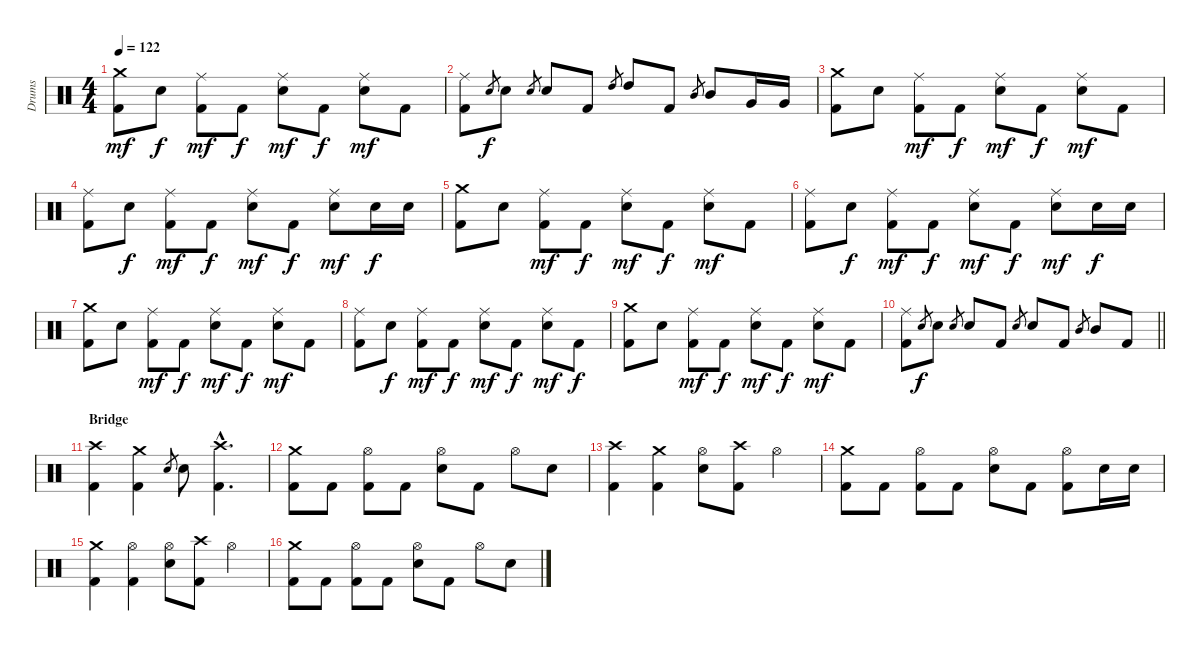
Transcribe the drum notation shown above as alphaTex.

\track ("Drums" "Drums") {instrument percussion}
\staff {score}
\articulation defaults
\ts (4 4)
\tempo 122
\clef neutral
\ks c
("Crash medium (hit)" "Kick (hit) 2").8{dy mf} "Snare (hit) 2".8{dy f} ("Kick (hit) 2" "Ride (middle)").8{dy mf} "Kick (hit) 2".8{dy f} ("Snare (hit) 2" "Ride (middle)").8{dy mf} "Kick (hit) 2".8{dy f} ("Snare (hit) 2" "Ride (middle)").8{dy mf} "Kick (hit) 2".8 |
("Kick (hit) 2" "Ride (middle)").8 "Snare (hit) 2".8{gr dy f} "Snare (hit) 2".8 "Snare (hit) 2".8{gr} "Snare (hit) 2".8 "Kick (hit) 2".8 "High Tom (hit)".8{gr} "High Tom (hit)".8 "Kick (hit) 2".8 "Mid Tom (hit)".8{gr} "Mid Tom (hit)".8 "Very Low Tom (hit)".16 "Very Low Tom (hit)".16 |
("Crash medium (hit)" "Kick (hit) 2").8 "Snare (hit) 2".8 ("Kick (hit) 2" "Ride (middle)").8{dy mf} "Kick (hit) 2".8{dy f} ("Snare (hit) 2" "Ride (middle)").8{dy mf} "Kick (hit) 2".8{dy f} ("Snare (hit) 2" "Ride (middle)").8{dy mf} "Kick (hit) 2".8 |
("Kick (hit) 2" "Ride (middle)").8 "Snare (hit) 2".8{dy f} ("Kick (hit) 2" "Ride (middle)").8{dy mf} "Kick (hit) 2".8{dy f} ("Snare (hit) 2" "Ride (middle)").8{dy mf} "Kick (hit) 2".8{dy f} ("Snare (hit) 2" "Ride (middle)").8{dy mf} "Snare (hit) 2".16{dy f} "Snare (hit) 2".16 |
("Crash medium (hit)" "Kick (hit) 2").8 "Snare (hit) 2".8 ("Kick (hit) 2" "Ride (middle)").8{dy mf} "Kick (hit) 2".8{dy f} ("Snare (hit) 2" "Ride (middle)").8{dy mf} "Kick (hit) 2".8{dy f} ("Snare (hit) 2" "Ride (middle)").8{dy mf} "Kick (hit) 2".8 |
("Kick (hit) 2" "Ride (middle)").8 "Snare (hit) 2".8{dy f} ("Kick (hit) 2" "Ride (middle)").8{dy mf} "Kick (hit) 2".8{dy f} ("Snare (hit) 2" "Ride (middle)").8{dy mf} "Kick (hit) 2".8{dy f} ("Snare (hit) 2" "Ride (middle)").8{dy mf} "Snare (hit) 2".16{dy f} "Snare (hit) 2".16 |
("Crash medium (hit)" "Kick (hit) 2").8 "Snare (hit) 2".8 ("Kick (hit) 2" "Ride (middle)").8{dy mf} "Kick (hit) 2".8{dy f} ("Snare (hit) 2" "Ride (middle)").8{dy mf} "Kick (hit) 2".8{dy f} ("Snare (hit) 2" "Ride (middle)").8{dy mf} "Kick (hit) 2".8 |
("Kick (hit) 2" "Ride (middle)").8 "Snare (hit) 2".8{dy f} ("Kick (hit) 2" "Ride (middle)").8{dy mf} "Kick (hit) 2".8{dy f} ("Snare (hit) 2" "Ride (middle)").8{dy mf} "Kick (hit) 2".8{dy f} ("Snare (hit) 2" "Ride (middle)").8{dy mf} "Kick (hit) 2".8{dy f} |
("Crash medium (hit)" "Kick (hit) 2").8 "Snare (hit) 2".8 ("Kick (hit) 2" "Ride (middle)").8{dy mf} "Kick (hit) 2".8{dy f} ("Snare (hit) 2" "Ride (middle)").8{dy mf} "Kick (hit) 2".8{dy f} ("Snare (hit) 2" "Ride (middle)").8{dy mf} "Kick (hit) 2".8 |
\barLineRight lightlight
("Kick (hit) 2" "Ride (middle)").8 "Snare (hit) 2".8{gr dy f} "Snare (hit) 2".8 "Snare (hit) 2".8{gr} "Snare (hit) 2".8 "Kick (hit) 2".8 "Snare (hit) 2".8{gr} "Snare (hit) 2".8 "Kick (hit) 2".8 "Mid Tom (hit)".8{gr} "Mid Tom (hit)".8 "Kick (hit) 2".8 |
\section ("" "Bridge")
("Kick (hit) 2" "Crash high (hit)").4 ("Kick (hit) 2" "Crash medium (hit)").4 "Snare (hit) 2".8{gr} "Snare (hit) 2".8 ("Kick (hit) 2"{hac} "Crash high (hit)"{hac}).4{d} |
("Kick (hit) 2" "Crash medium (hit)").8 "Kick (hit) 2".8 ("Kick (hit) 2" "Hi-Hat (open)").8 "Kick (hit) 2".8 ("Snare (hit) 2" "Hi-Hat (open)").8 "Kick (hit) 2".8 "Hi-Hat (open)".8 "Snare (hit) 2".8 |
("Kick (hit) 2" "Crash high (hit)").4 ("Kick (hit) 2" "Crash medium (hit)").4 ("Hi-Hat (open)" "Snare (hit) 2").8 ("Kick (hit) 2" "Crash high (hit)").8 "Hi-Hat (open)".4 |
("Kick (hit) 2" "Crash medium (hit)").8 "Kick (hit) 2".8 ("Kick (hit) 2" "Hi-Hat (open)").8 "Kick (hit) 2".8 ("Snare (hit) 2" "Hi-Hat (open)").8 "Kick (hit) 2".8 ("Hi-Hat (open)" "Kick (hit) 2").8 "Snare (hit) 2".16 "Snare (hit) 2".16 |
("Kick (hit) 2" "Crash medium (hit)").4 ("Kick (hit) 2" "Hi-Hat (open)").4 ("Hi-Hat (open)" "Snare (hit) 2").8 ("Kick (hit) 2" "Crash high (hit)").8 "Hi-Hat (open)".4 |
("Kick (hit) 2" "Crash medium (hit)").8 "Kick (hit) 2".8 ("Kick (hit) 2" "Hi-Hat (open)").8 "Kick (hit) 2".8 ("Snare (hit) 2" "Hi-Hat (open)").8 "Kick (hit) 2".8 "Hi-Hat (open)".8 "Snare (hit) 2".8
